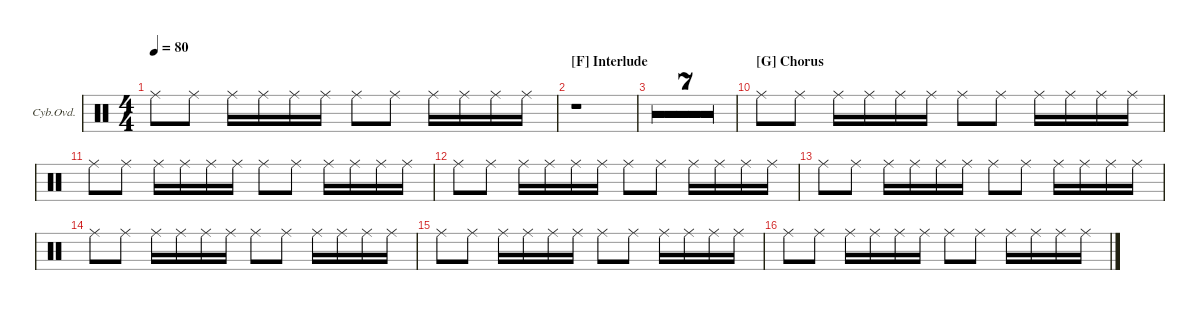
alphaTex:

\defaultSystemsLayout 4
\hideDynamics
\bracketExtendMode groupsimilarinstruments
\firstSystemTrackNameOrientation horizontal
\otherSystemsTrackNameOrientation horizontal
\track ("Cymbal Overdub" "Cyb.Ovd.") {multiBarRest instrument percussion}
\staff {score}
\articulation defaults
\ts (4 4)
\tempo 80
\clef neutral
\ks c "Ride (middle)".8{dy p} "Ride (middle)".8 "Ride (middle)".16 "Ride (middle)".16 "Ride (middle)".16 "Ride (middle)".16 "Ride (middle)".8 "Ride (middle)".8 "Ride (middle)".16 "Ride (middle)".16 "Ride (middle)".16 "Ride (middle)".16
|
\section ("F" "Interlude")
r.1 |
r.1 |
r.1 |
r.1 |
r.1 |
r.1 |
r.1 |
r.1 |
\section ("G" "Chorus")
"Ride (middle)".8 "Ride (middle)".8 "Ride (middle)".16 "Ride (middle)".16 "Ride (middle)".16 "Ride (middle)".16 "Ride (middle)".8 "Ride (middle)".8 "Ride (middle)".16 "Ride (middle)".16 "Ride (middle)".16 "Ride (middle)".16 |
"Ride (middle)".8 "Ride (middle)".8 "Ride (middle)".16 "Ride (middle)".16 "Ride (middle)".16 "Ride (middle)".16 "Ride (middle)".8 "Ride (middle)".8 "Ride (middle)".16 "Ride (middle)".16 "Ride (middle)".16 "Ride (middle)".16 |
"Ride (middle)".8 "Ride (middle)".8 "Ride (middle)".16 "Ride (middle)".16 "Ride (middle)".16 "Ride (middle)".16 "Ride (middle)".8 "Ride (middle)".8 "Ride (middle)".16 "Ride (middle)".16 "Ride (middle)".16 "Ride (middle)".16 |
"Ride (middle)".8 "Ride (middle)".8 "Ride (middle)".16 "Ride (middle)".16 "Ride (middle)".16 "Ride (middle)".16 "Ride (middle)".8 "Ride (middle)".8 "Ride (middle)".16 "Ride (middle)".16 "Ride (middle)".16 "Ride (middle)".16 |
"Ride (middle)".8 "Ride (middle)".8 "Ride (middle)".16 "Ride (middle)".16 "Ride (middle)".16 "Ride (middle)".16 "Ride (middle)".8 "Ride (middle)".8 "Ride (middle)".16 "Ride (middle)".16 "Ride (middle)".16 "Ride (middle)".16 |
"Ride (middle)".8 "Ride (middle)".8 "Ride (middle)".16 "Ride (middle)".16 "Ride (middle)".16 "Ride (middle)".16 "Ride (middle)".8 "Ride (middle)".8 "Ride (middle)".16 "Ride (middle)".16 "Ride (middle)".16 "Ride (middle)".16 |
"Ride (middle)".8 "Ride (middle)".8 "Ride (middle)".16 "Ride (middle)".16 "Ride (middle)".16 "Ride (middle)".16 "Ride (middle)".8 "Ride (middle)".8 "Ride (middle)".16 "Ride (middle)".16 "Ride (middle)".16 "Ride (middle)".16
